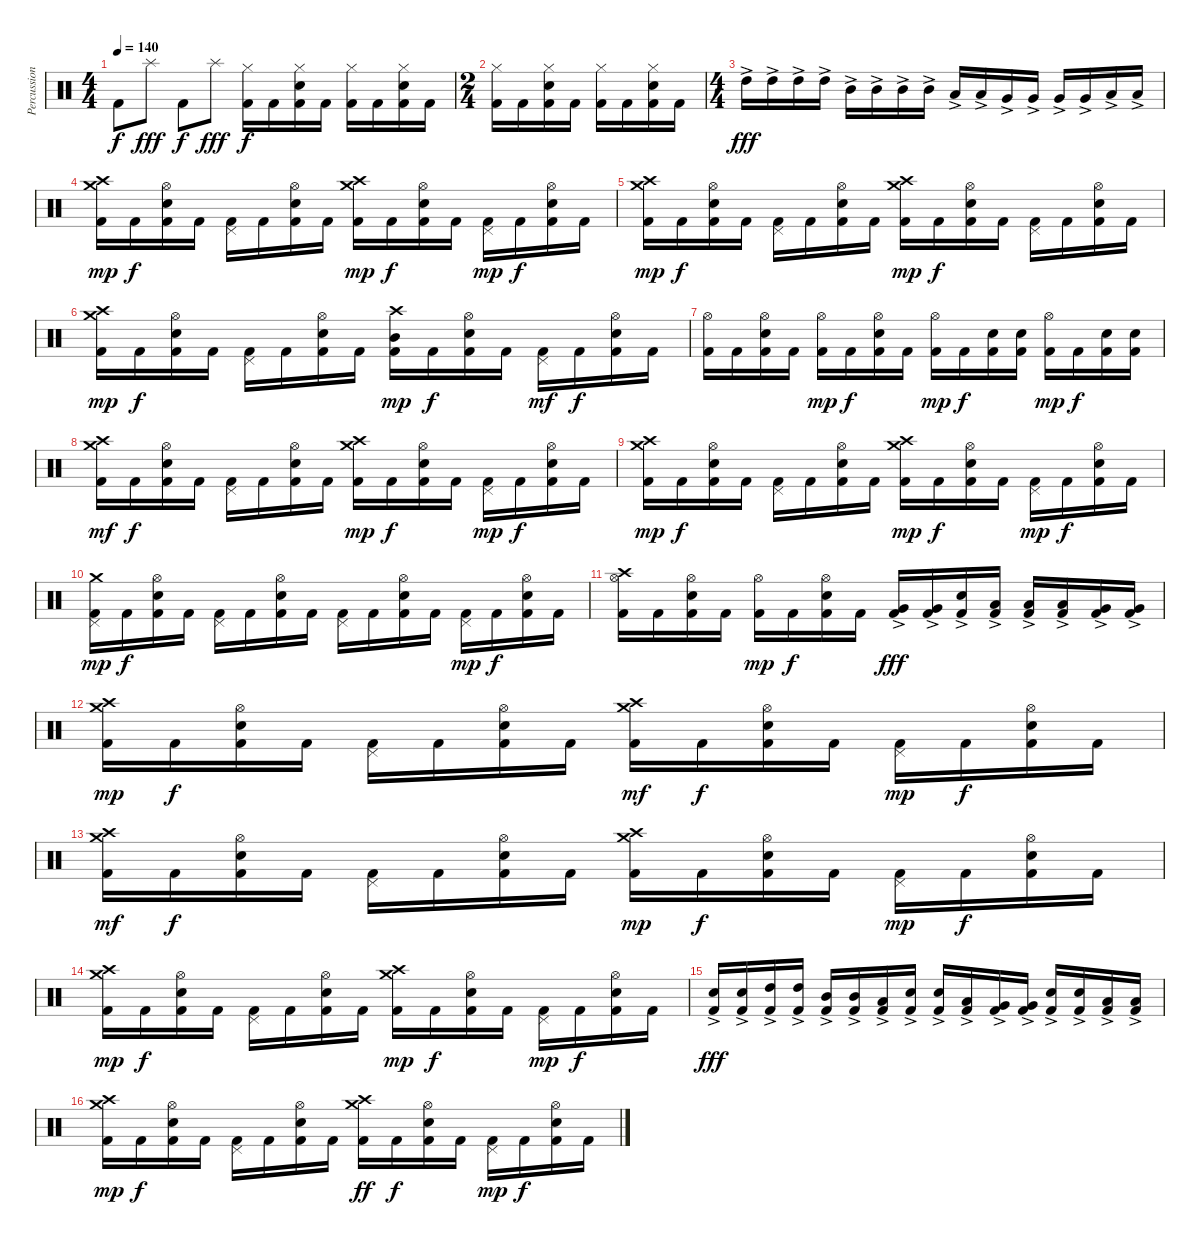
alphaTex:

\track ("Percussion" "Percussion") {instrument percussion}
\staff {score}
\articulation defaults
\ts (4 4)
\tempo 140
\clef neutral
\ks c "Kick (hit) 2".8{dy f} "Splash (hit)".8{dy fff} "Kick (hit) 2".8{dy f} "Splash (hit)".8{dy fff}
("Hi-Hat (closed)" "Kick (hit) 2").16{dy f} "Kick (hit) 2".16 ("Hi-Hat (closed)" "Electric Snare (hit)" "Kick (hit) 2").16 "Kick (hit) 2".16 ("Hi-Hat (closed)" "Kick (hit) 2").16 "Kick (hit) 2".16 ("Hi-Hat (closed)" "Electric Snare (hit)" "Kick (hit) 2").16 "Kick (hit) 2".16 |
\ts (2 4)
("Hi-Hat (closed)" "Kick (hit) 2").16 "Kick (hit) 2".16 ("Hi-Hat (closed)" "Electric Snare (hit)" "Kick (hit) 2").16 "Kick (hit) 2".16 ("Hi-Hat (closed)" "Kick (hit) 2").16 "Kick (hit) 2".16 ("Hi-Hat (closed)" "Electric Snare (hit)" "Kick (hit) 2").16 "Kick (hit) 2".16 |
\ts (4 4)
"High Tom (hit)"{ac}.16{dy fff} "High Tom (hit)"{ac}.16 "High Tom (hit)"{ac}.16 "High Tom (hit)"{ac}.16 "Mid Tom (hit)"{ac}.16 "Mid Tom (hit)"{ac}.16 "Mid Tom (hit)"{ac}.16 "Mid Tom (hit)"{ac}.16 "Low Tom (hit)"{ac}.16 "Low Tom (hit)"{ac}.16 "Very Low Tom (hit)"{ac}.16 "Very Low Tom (hit)"{ac}.16 "Very Low Tom (hit)"{ac}.16 "Very Low Tom (hit)"{ac}.16 "Low Floor Tom (hit)"{ac}.16 "Low Floor Tom (hit)"{ac}.16 |
("Crash medium (hit)" "Crash high (hit)" "Kick (hit) 2").16{dy mp} "Kick (hit) 2".16{dy f} ("Hi-Hat (open)" "Electric Snare (hit)" "Kick (hit) 2").16 "Kick (hit) 2".16 ("Pedal Hi-Hat (hit)" "Kick (hit) 2").16 "Kick (hit) 2".16 ("Hi-Hat (open)" "Electric Snare (hit)" "Kick (hit) 2").16 "Kick (hit) 2".16 ("Crash high (hit)" "Crash medium (hit)" "Kick (hit) 2").16{dy mp} "Kick (hit) 2".16{dy f} ("Hi-Hat (open)" "Electric Snare (hit)" "Kick (hit) 2").16 "Kick (hit) 2".16 ("Pedal Hi-Hat (hit)" "Kick (hit) 2").16{dy mp} "Kick (hit) 2".16{dy f} ("Hi-Hat (open)" "Electric Snare (hit)" "Kick (hit) 2").16 "Kick (hit) 2".16 |
("Crash medium (hit)" "Crash high (hit)" "Kick (hit) 2").16{dy mp} "Kick (hit) 2".16{dy f} ("Hi-Hat (open)" "Electric Snare (hit)" "Kick (hit) 2").16 "Kick (hit) 2".16 ("Pedal Hi-Hat (hit)" "Kick (hit) 2").16 "Kick (hit) 2".16 ("Hi-Hat (open)" "Electric Snare (hit)" "Kick (hit) 2").16 "Kick (hit) 2".16 ("Crash high (hit)" "Crash medium (hit)" "Kick (hit) 2").16{dy mp} "Kick (hit) 2".16{dy f} ("Hi-Hat (open)" "Electric Snare (hit)" "Kick (hit) 2").16 "Kick (hit) 2".16 ("Pedal Hi-Hat (hit)" "Kick (hit) 2").16 "Kick (hit) 2".16 ("Hi-Hat (open)" "Electric Snare (hit)" "Kick (hit) 2").16 "Kick (hit) 2".16 |
("Crash medium (hit)" "Crash high (hit)" "Kick (hit) 2").16{dy mp} "Kick (hit) 2".16{dy f} ("Hi-Hat (open)" "Electric Snare (hit)" "Kick (hit) 2").16 "Kick (hit) 2".16 ("Pedal Hi-Hat (hit)" "Kick (hit) 2").16 "Kick (hit) 2".16 ("Hi-Hat (open)" "Electric Snare (hit)" "Kick (hit) 2").16 "Kick (hit) 2".16 ("Crash high (hit)" "Mid Tom (hit)" "Kick (hit) 2").16{dy mp} "Kick (hit) 2".16{dy f} ("Hi-Hat (open)" "Electric Snare (hit)" "Kick (hit) 2").16 "Kick (hit) 2".16 ("Pedal Hi-Hat (hit)" "Kick (hit) 2").16{dy mf} "Kick (hit) 2".16{dy f} ("Hi-Hat (open)" "Electric Snare (hit)" "Kick (hit) 2").16 "Kick (hit) 2".16 |
("Hi-Hat (open)" "Kick (hit) 2").16 "Kick (hit) 2".16 ("Hi-Hat (open)" "Electric Snare (hit)" "Kick (hit) 2").16 "Kick (hit) 2".16 ("Hi-Hat (open)" "Kick (hit) 2").16{dy mp} "Kick (hit) 2".16{dy f} ("Hi-Hat (open)" "Electric Snare (hit)" "Kick (hit) 2").16 "Kick (hit) 2".16 ("Hi-Hat (open)" "Kick (hit) 2").16{dy mp} "Kick (hit) 2".16{dy f} ("Electric Snare (hit)" "Kick (hit) 2").16 ("Electric Snare (hit)" "Kick (hit) 2").16 ("Hi-Hat (open)" "Kick (hit) 2").16{dy mp} "Kick (hit) 2".16{dy f} ("Electric Snare (hit)" "Kick (hit) 2").16 ("Electric Snare (hit)" "Kick (hit) 2").16 |
("Crash medium (hit)" "Crash high (hit)" "Kick (hit) 2").16{dy mf} "Kick (hit) 2".16{dy f} ("Hi-Hat (open)" "Electric Snare (hit)" "Kick (hit) 2").16 "Kick (hit) 2".16 ("Pedal Hi-Hat (hit)" "Kick (hit) 2").16 "Kick (hit) 2".16 ("Hi-Hat (open)" "Electric Snare (hit)" "Kick (hit) 2").16 "Kick (hit) 2".16 ("Crash high (hit)" "Crash medium (hit)" "Kick (hit) 2").16{dy mp} "Kick (hit) 2".16{dy f} ("Hi-Hat (open)" "Electric Snare (hit)" "Kick (hit) 2").16 "Kick (hit) 2".16 ("Pedal Hi-Hat (hit)" "Kick (hit) 2").16{dy mp} "Kick (hit) 2".16{dy f} ("Hi-Hat (open)" "Electric Snare (hit)" "Kick (hit) 2").16 "Kick (hit) 2".16 |
("Crash high (hit)" "Crash medium (hit)" "Kick (hit) 2").16{dy mp} "Kick (hit) 2".16{dy f} ("Hi-Hat (open)" "Electric Snare (hit)" "Kick (hit) 2").16 "Kick (hit) 2".16 ("Pedal Hi-Hat (hit)" "Kick (hit) 2").16 "Kick (hit) 2".16 ("Hi-Hat (open)" "Electric Snare (hit)" "Kick (hit) 2").16 "Kick (hit) 2".16 ("Crash high (hit)" "Crash medium (hit)" "Kick (hit) 2").16{dy mp} "Kick (hit) 2".16{dy f} ("Hi-Hat (open)" "Electric Snare (hit)" "Kick (hit) 2").16 "Kick (hit) 2".16 ("Pedal Hi-Hat (hit)" "Kick (hit) 2").16{dy mp} "Kick (hit) 2".16{dy f} ("Hi-Hat (open)" "Electric Snare (hit)" "Kick (hit) 2").16 "Kick (hit) 2".16 |
("Crash medium (hit)" "Pedal Hi-Hat (hit)" "Kick (hit) 2").16{dy mp} "Kick (hit) 2".16{dy f} ("Hi-Hat (open)" "Electric Snare (hit)" "Kick (hit) 2").16 "Kick (hit) 2".16 ("Pedal Hi-Hat (hit)" "Kick (hit) 2").16 "Kick (hit) 2".16 ("Hi-Hat (open)" "Electric Snare (hit)" "Kick (hit) 2").16 "Kick (hit) 2".16 ("Pedal Hi-Hat (hit)" "Kick (hit) 2").16 "Kick (hit) 2".16 ("Hi-Hat (open)" "Electric Snare (hit)" "Kick (hit) 2").16 "Kick (hit) 2".16 ("Pedal Hi-Hat (hit)" "Kick (hit) 2").16{dy mp} "Kick (hit) 2".16{dy f} ("Hi-Hat (open)" "Electric Snare (hit)" "Kick (hit) 2").16 "Kick (hit) 2".16 |
("Crash high (hit)" "Hi-Hat (open)" "Kick (hit) 2").16 "Kick (hit) 2".16 ("Hi-Hat (open)" "Electric Snare (hit)" "Kick (hit) 2").16 "Kick (hit) 2".16 ("Hi-Hat (open)" "Kick (hit) 2").16{dy mp} "Kick (hit) 2".16{dy f} ("Hi-Hat (open)" "Electric Snare (hit)" "Kick (hit) 2").16 "Kick (hit) 2".16 ("Very Low Tom (hit)"{ac} "Kick (hit) 2").16{dy fff} ("Very Low Tom (hit)"{ac} "Kick (hit) 2").16 ("Electric Snare (hit)"{ac} "Kick (hit) 2").16 ("Low Tom (hit)"{ac} "Kick (hit) 2").16 ("Low Tom (hit)"{ac} "Kick (hit) 2").16 ("Low Tom (hit)"{ac} "Kick (hit) 2").16 ("Very Low Tom (hit)"{ac} "Kick (hit) 2").16 ("Very Low Tom (hit)"{ac} "Kick (hit) 2").16 |
("Crash medium (hit)" "Crash high (hit)" "Kick (hit) 2").16{dy mp} "Kick (hit) 2".16{dy f} ("Hi-Hat (open)" "Electric Snare (hit)" "Kick (hit) 2").16 "Kick (hit) 2".16 ("Pedal Hi-Hat (hit)" "Kick (hit) 2").16 "Kick (hit) 2".16 ("Hi-Hat (open)" "Electric Snare (hit)" "Kick (hit) 2").16 "Kick (hit) 2".16 ("Crash high (hit)" "Crash medium (hit)" "Kick (hit) 2").16{dy mf} "Kick (hit) 2".16{dy f} ("Hi-Hat (open)" "Electric Snare (hit)" "Kick (hit) 2").16 "Kick (hit) 2".16 ("Pedal Hi-Hat (hit)" "Kick (hit) 2").16{dy mp} "Kick (hit) 2".16{dy f} ("Hi-Hat (open)" "Electric Snare (hit)" "Kick (hit) 2").16 "Kick (hit) 2".16 |
("Crash medium (hit)" "Crash high (hit)" "Kick (hit) 2").16{dy mf} "Kick (hit) 2".16{dy f} ("Hi-Hat (open)" "Electric Snare (hit)" "Kick (hit) 2").16 "Kick (hit) 2".16 ("Pedal Hi-Hat (hit)" "Kick (hit) 2").16 "Kick (hit) 2".16 ("Hi-Hat (open)" "Electric Snare (hit)" "Kick (hit) 2").16 "Kick (hit) 2".16 ("Crash high (hit)" "Crash medium (hit)" "Kick (hit) 2").16{dy mp} "Kick (hit) 2".16{dy f} ("Hi-Hat (open)" "Electric Snare (hit)" "Kick (hit) 2").16 "Kick (hit) 2".16 ("Pedal Hi-Hat (hit)" "Kick (hit) 2").16{dy mp} "Kick (hit) 2".16{dy f} ("Hi-Hat (open)" "Electric Snare (hit)" "Kick (hit) 2").16 "Kick (hit) 2".16 |
("Crash medium (hit)" "Crash high (hit)" "Kick (hit) 2").16{dy mp} "Kick (hit) 2".16{dy f} ("Hi-Hat (open)" "Electric Snare (hit)" "Kick (hit) 2").16 "Kick (hit) 2".16 ("Pedal Hi-Hat (hit)" "Kick (hit) 2").16 "Kick (hit) 2".16 ("Hi-Hat (open)" "Electric Snare (hit)" "Kick (hit) 2").16 "Kick (hit) 2".16 ("Crash high (hit)" "Crash medium (hit)" "Kick (hit) 2").16{dy mp} "Kick (hit) 2".16{dy f} ("Hi-Hat (open)" "Electric Snare (hit)" "Kick (hit) 2").16 "Kick (hit) 2".16 ("Pedal Hi-Hat (hit)" "Kick (hit) 2").16{dy mp} "Kick (hit) 2".16{dy f} ("Hi-Hat (open)" "Electric Snare (hit)" "Kick (hit) 2").16 "Kick (hit) 2".16 |
("Electric Snare (hit)"{ac} "Kick (hit) 2").16{dy fff} ("Electric Snare (hit)"{ac} "Kick (hit) 2").16 ("High Tom (hit)"{ac} "Kick (hit) 2").16 ("High Tom (hit)"{ac} "Kick (hit) 2").16 ("Mid Tom (hit)"{ac} "Kick (hit) 2").16 ("Mid Tom (hit)"{ac} "Kick (hit) 2").16 ("Low Tom (hit)"{ac} "Kick (hit) 2").16 ("Electric Snare (hit)"{ac} "Kick (hit) 2").16 ("Electric Snare (hit)"{ac} "Kick (hit) 2").16 ("Low Tom (hit)"{ac} "Kick (hit) 2").16 ("Very Low Tom (hit)"{ac} "Kick (hit) 2").16 ("Very Low Tom (hit)"{ac} "Kick (hit) 2").16 ("Electric Snare (hit)"{ac} "Kick (hit) 2").16 ("Electric Snare (hit)"{ac} "Kick (hit) 2").16 ("Low Floor Tom (hit)"{ac} "Kick (hit) 2").16 ("Low Floor Tom (hit)"{ac} "Kick (hit) 2").16 |
("Crash medium (hit)" "Crash high (hit)" "Kick (hit) 2").16{dy mp} "Kick (hit) 2".16{dy f} ("Hi-Hat (open)" "Electric Snare (hit)" "Kick (hit) 2").16 "Kick (hit) 2".16 ("Pedal Hi-Hat (hit)" "Kick (hit) 2").16 "Kick (hit) 2".16 ("Hi-Hat (open)" "Electric Snare (hit)" "Kick (hit) 2").16 "Kick (hit) 2".16 ("Crash high (hit)" "Crash medium (hit)" "Kick (hit) 2").16{dy ff} "Kick (hit) 2".16{dy f} ("Hi-Hat (open)" "Electric Snare (hit)" "Kick (hit) 2").16 "Kick (hit) 2".16 ("Pedal Hi-Hat (hit)" "Kick (hit) 2").16{dy mp} "Kick (hit) 2".16{dy f} ("Hi-Hat (open)" "Electric Snare (hit)" "Kick (hit) 2").16 "Kick (hit) 2".16
